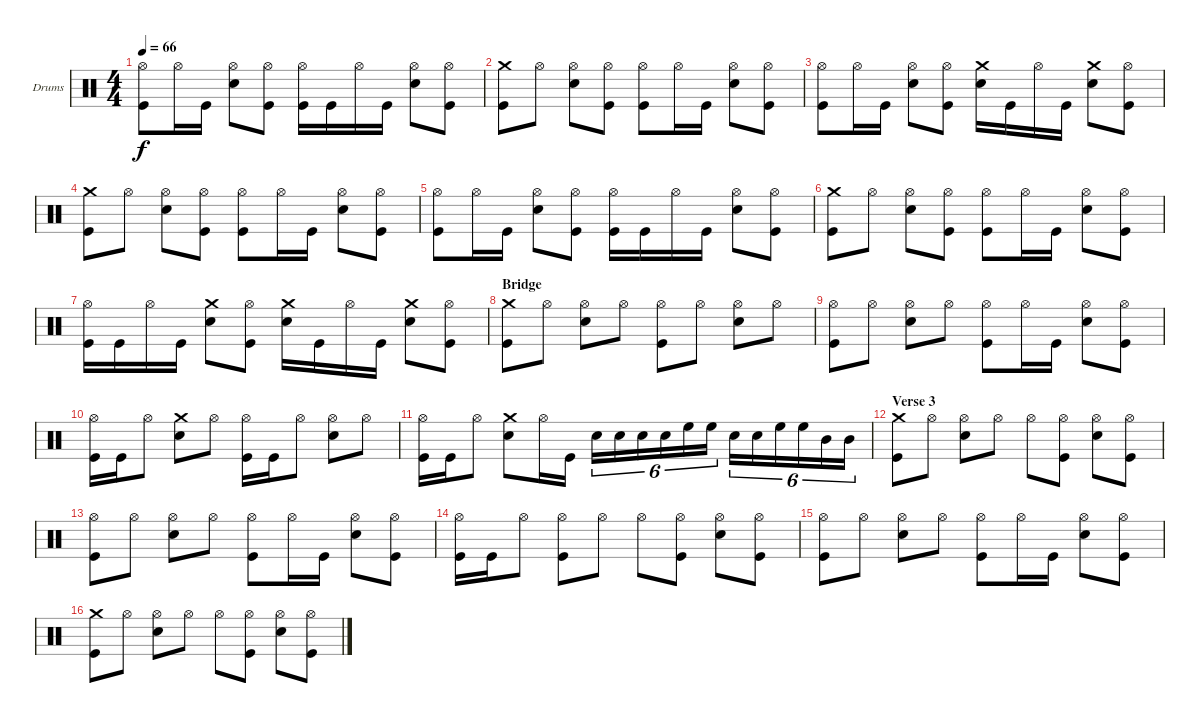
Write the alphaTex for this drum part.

\bracketExtendMode groupsimilarinstruments
\firstSystemTrackNameOrientation horizontal
\otherSystemsTrackNameOrientation horizontal
\track ("Drumkit" "Drums") {instrument percussion}
\staff {score}
\articulation defaults
\ts (4 4)
\tempo 66
\clef neutral
\ks c
("Hi-Hat (open)" "Kick (hit)").8{dy f} "Hi-Hat (open)".16 "Kick (hit)".16 ("Hi-Hat (open)" "Snare (hit) 2").8 ("Hi-Hat (open)" "Kick (hit)").8 ("Hi-Hat (open)" "Kick (hit)").16 "Kick (hit)".16 "Hi-Hat (open)".16 "Kick (hit)".16 ("Hi-Hat (open)" "Snare (hit) 2").8 ("Hi-Hat (open)" "Kick (hit)").8 |
("Crash medium (hit)" "Kick (hit)").8 "Hi-Hat (open)".8 ("Hi-Hat (open)" "Snare (hit) 2").8 ("Hi-Hat (open)" "Kick (hit)").8 ("Hi-Hat (open)" "Kick (hit)").8 "Hi-Hat (open)".16 "Kick (hit)".16 ("Hi-Hat (open)" "Snare (hit) 2").8 ("Hi-Hat (open)" "Kick (hit)").8 |
("Hi-Hat (open)" "Kick (hit)").8 "Hi-Hat (open)".16 "Kick (hit)".16 ("Hi-Hat (open)" "Snare (hit) 2").8 ("Hi-Hat (open)" "Kick (hit)").8 ("Crash medium (hit)" "Snare (hit) 2").16 "Kick (hit)".16 "Hi-Hat (open)".16 "Kick (hit)".16 ("Crash medium (hit)" "Snare (hit) 2").8 ("Hi-Hat (open)" "Kick (hit)").8 |
("Crash medium (hit)" "Kick (hit)").8 "Hi-Hat (open)".8 ("Hi-Hat (open)" "Snare (hit) 2").8 ("Hi-Hat (open)" "Kick (hit)").8 ("Hi-Hat (open)" "Kick (hit)").8 "Hi-Hat (open)".16 "Kick (hit)".16 ("Hi-Hat (open)" "Snare (hit) 2").8 ("Hi-Hat (open)" "Kick (hit)").8 |
("Hi-Hat (open)" "Kick (hit)").8 "Hi-Hat (open)".16 "Kick (hit)".16 ("Hi-Hat (open)" "Snare (hit) 2").8 ("Hi-Hat (open)" "Kick (hit)").8 ("Hi-Hat (open)" "Kick (hit)").16 "Kick (hit)".16 "Hi-Hat (open)".16 "Kick (hit)".16 ("Hi-Hat (open)" "Snare (hit) 2").8 ("Hi-Hat (open)" "Kick (hit)").8 |
("Crash medium (hit)" "Kick (hit)").8 "Hi-Hat (open)".8 ("Hi-Hat (open)" "Snare (hit) 2").8 ("Hi-Hat (open)" "Kick (hit)").8 ("Hi-Hat (open)" "Kick (hit)").8 "Hi-Hat (open)".16 "Kick (hit)".16 ("Hi-Hat (open)" "Snare (hit) 2").8 ("Hi-Hat (open)" "Kick (hit)").8 |
("Hi-Hat (open)" "Kick (hit)").16 "Kick (hit)".16 "Hi-Hat (open)".16 "Kick (hit)".16 ("Crash medium (hit)" "Snare (hit) 2").8 ("Hi-Hat (open)" "Kick (hit)").8 ("Crash medium (hit)" "Snare (hit) 2").16 "Kick (hit)".16 "Hi-Hat (open)".16 "Kick (hit)".16 ("Crash medium (hit)" "Snare (hit) 2").8 ("Hi-Hat (open)" "Kick (hit)").8 |
\section ("" "Bridge")
("Crash medium (hit)" "Kick (hit)").8 "Hi-Hat (open)".8 ("Hi-Hat (open)" "Snare (hit) 2").8 "Hi-Hat (open)".8 ("Hi-Hat (open)" "Kick (hit)").8 "Hi-Hat (open)".8 ("Hi-Hat (open)" "Snare (hit) 2").8 "Hi-Hat (open)".8 |
("Hi-Hat (open)" "Kick (hit)").8 "Hi-Hat (open)".8 ("Hi-Hat (open)" "Snare (hit) 2").8 "Hi-Hat (open)".8 ("Hi-Hat (open)" "Kick (hit)").8 "Hi-Hat (open)".16 "Kick (hit)".16 ("Hi-Hat (open)" "Snare (hit) 2").8 ("Hi-Hat (open)" "Kick (hit)").8 |
("Hi-Hat (open)" "Kick (hit)").16 "Kick (hit)".16 "Hi-Hat (open)".8 ("Crash medium (hit)" "Snare (hit) 2").8 "Hi-Hat (open)".8 ("Hi-Hat (open)" "Kick (hit)").16 "Kick (hit)".16 "Hi-Hat (open)".8 ("Hi-Hat (open)" "Snare (hit) 2").8 "Hi-Hat (open)".8 |
("Hi-Hat (open)" "Kick (hit)").16 "Kick (hit)".16 "Hi-Hat (open)".8 ("Crash medium (hit)" "Snare (hit) 2").8 "Hi-Hat (open)".16 "Kick (hit)".16 "Snare (hit) 2".16{tu (6 4)} "Snare (hit) 2".16{tu (6 4)} "Snare (hit) 2".16{tu (6 4)} "Snare (hit) 2".16{tu (6 4)} "High Floor Tom (hit)".16{tu (6 4)} "High Floor Tom (hit)".16{tu (6 4)} "Snare (hit) 2".16{tu (6 4)} "Snare (hit) 2".16{tu (6 4)} "High Floor Tom (hit)".16{tu (6 4)} "High Floor Tom (hit)".16{tu (6 4)} "Mid Tom (hit)".16{tu (6 4)} "Mid Tom (hit)".16{tu (6 4)} |
\section ("" "Verse 3")
("Crash medium (hit)" "Kick (hit)").8 "Hi-Hat (open)".8 ("Hi-Hat (open)" "Snare (hit) 2").8 "Hi-Hat (open)".8 "Hi-Hat (open)".8 ("Hi-Hat (open)" "Kick (hit)").8 ("Hi-Hat (open)" "Snare (hit) 2").8 ("Hi-Hat (open)" "Kick (hit)").8 |
("Hi-Hat (open)" "Kick (hit)").8 "Hi-Hat (open)".8 ("Hi-Hat (open)" "Snare (hit) 2").8 "Hi-Hat (open)".8 ("Hi-Hat (open)" "Kick (hit)").8 "Hi-Hat (open)".16 "Kick (hit)".16 ("Hi-Hat (open)" "Snare (hit) 2").8 ("Hi-Hat (open)" "Kick (hit)").8 |
("Hi-Hat (open)" "Kick (hit)").16 "Kick (hit)".16 "Hi-Hat (open)".8 ("Hi-Hat (open)" "Kick (hit)").8 "Hi-Hat (open)".8 "Hi-Hat (open)".8 ("Hi-Hat (open)" "Kick (hit)").8 ("Hi-Hat (open)" "Snare (hit) 2").8 ("Hi-Hat (open)" "Kick (hit)").8 |
("Hi-Hat (open)" "Kick (hit)").8 "Hi-Hat (open)".8 ("Hi-Hat (open)" "Snare (hit) 2").8 "Hi-Hat (open)".8 ("Hi-Hat (open)" "Kick (hit)").8 "Hi-Hat (open)".16 "Kick (hit)".16 ("Hi-Hat (open)" "Snare (hit) 2").8 ("Hi-Hat (open)" "Kick (hit)").8 |
("Crash medium (hit)" "Kick (hit)").8 "Hi-Hat (open)".8 ("Hi-Hat (open)" "Snare (hit) 2").8 "Hi-Hat (open)".8 "Hi-Hat (open)".8 ("Hi-Hat (open)" "Kick (hit)").8 ("Hi-Hat (open)" "Snare (hit) 2").8 ("Hi-Hat (open)" "Kick (hit)").8
